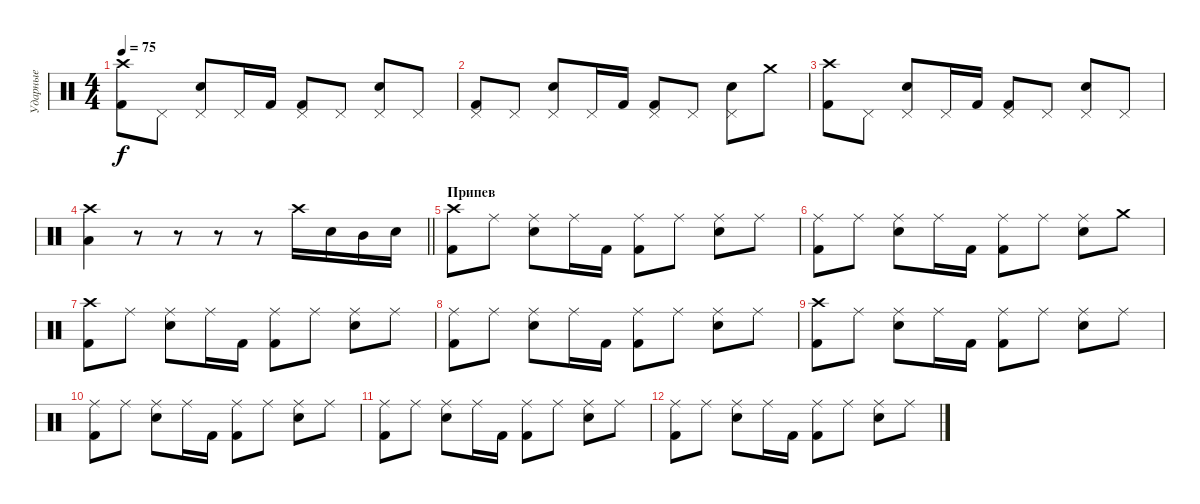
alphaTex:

\track ("Ударные" "Ударные") {instrument percussion}
\staff {score}
\articulation defaults
\ts (4 4)
\tempo 75
\clef neutral
\ks c
("Crash high (hit)" "Kick (hit) 2").8{dy f} "Pedal Hi-Hat (hit)".8 ("Pedal Hi-Hat (hit)" "Snare (hit) 2").8 "Pedal Hi-Hat (hit)".16 "Kick (hit) 2".16 ("Pedal Hi-Hat (hit)" "Kick (hit) 2").8 "Pedal Hi-Hat (hit)".8 ("Pedal Hi-Hat (hit)" "Snare (hit) 2").8 "Pedal Hi-Hat (hit)".8 |
("Pedal Hi-Hat (hit)" "Kick (hit) 2").8 "Pedal Hi-Hat (hit)".8 ("Pedal Hi-Hat (hit)" "Snare (hit) 2").8 "Pedal Hi-Hat (hit)".16 "Kick (hit) 2".16 ("Pedal Hi-Hat (hit)" "Kick (hit) 2").8 "Pedal Hi-Hat (hit)".8 ("Pedal Hi-Hat (hit)" "Snare (hit) 2").8 "Crash medium (hit)".8 |
("Crash high (hit)" "Kick (hit) 2").8 "Pedal Hi-Hat (hit)".8 ("Pedal Hi-Hat (hit)" "Snare (hit) 2").8 "Pedal Hi-Hat (hit)".16 "Kick (hit) 2".16 ("Pedal Hi-Hat (hit)" "Kick (hit) 2").8 "Pedal Hi-Hat (hit)".8 ("Pedal Hi-Hat (hit)" "Snare (hit) 2").8 "Pedal Hi-Hat (hit)".8 |
\barLineRight lightlight
("Crash high (hit)" "Low Tom (hit)").4 r.8 r.8 r.8 r.8 "Crash high (hit)".16 "Snare (hit) 2".16 "Mid Tom (hit)".16 "Snare (hit) 2".16 |
\section ("" "Припев")
("Crash high (hit)" "Kick (hit) 2").8 "Ride (middle)".8 ("Ride (middle)" "Snare (hit) 2").8 "Ride (middle)".16 "Kick (hit) 2".16 ("Ride (middle)" "Kick (hit) 2").8 "Ride (middle)".8 ("Ride (middle)" "Snare (hit) 2").8 "Ride (middle)".8 |
("Ride (middle)" "Kick (hit) 2").8 "Ride (middle)".8 ("Ride (middle)" "Snare (hit) 2").8 "Ride (middle)".16 "Kick (hit) 2".16 ("Ride (middle)" "Kick (hit) 2").8 "Ride (middle)".8 ("Ride (middle)" "Snare (hit) 2").8 "Crash medium (hit)".8 |
("Crash high (hit)" "Kick (hit) 2").8 "Ride (middle)".8 ("Ride (middle)" "Snare (hit) 2").8 "Ride (middle)".16 "Kick (hit) 2".16 ("Ride (middle)" "Kick (hit) 2").8 "Ride (middle)".8 ("Ride (middle)" "Snare (hit) 2").8 "Ride (middle)".8 |
("Ride (middle)" "Kick (hit) 2").8 "Ride (middle)".8 ("Ride (middle)" "Snare (hit) 2").8 "Ride (middle)".16 "Kick (hit) 2".16 ("Ride (middle)" "Kick (hit) 2").8 "Ride (middle)".8 ("Ride (middle)" "Snare (hit) 2").8 "Ride (middle)".8 |
("Crash high (hit)" "Kick (hit) 2").8 "Ride (middle)".8 ("Ride (middle)" "Snare (hit) 2").8 "Ride (middle)".16 "Kick (hit) 2".16 ("Ride (middle)" "Kick (hit) 2").8 "Ride (middle)".8 ("Ride (middle)" "Snare (hit) 2").8 "Ride (middle)".8 |
("Ride (middle)" "Kick (hit) 2").8 "Ride (middle)".8 ("Ride (middle)" "Snare (hit) 2").8 "Ride (middle)".16 "Kick (hit) 2".16 ("Ride (middle)" "Kick (hit) 2").8 "Ride (middle)".8 ("Ride (middle)" "Snare (hit) 2").8 "Ride (middle)".8 |
("Ride (middle)" "Kick (hit) 2").8 "Ride (middle)".8 ("Ride (middle)" "Snare (hit) 2").8 "Ride (middle)".16 "Kick (hit) 2".16 ("Ride (middle)" "Kick (hit) 2").8 "Ride (middle)".8 ("Ride (middle)" "Snare (hit) 2").8 "Ride (middle)".8 |
("Ride (middle)" "Kick (hit) 2").8 "Ride (middle)".8 ("Ride (middle)" "Snare (hit) 2").8 "Ride (middle)".16 "Kick (hit) 2".16 ("Ride (middle)" "Kick (hit) 2").8 "Ride (middle)".8 ("Ride (middle)" "Snare (hit) 2").8 "Ride (middle)".8
